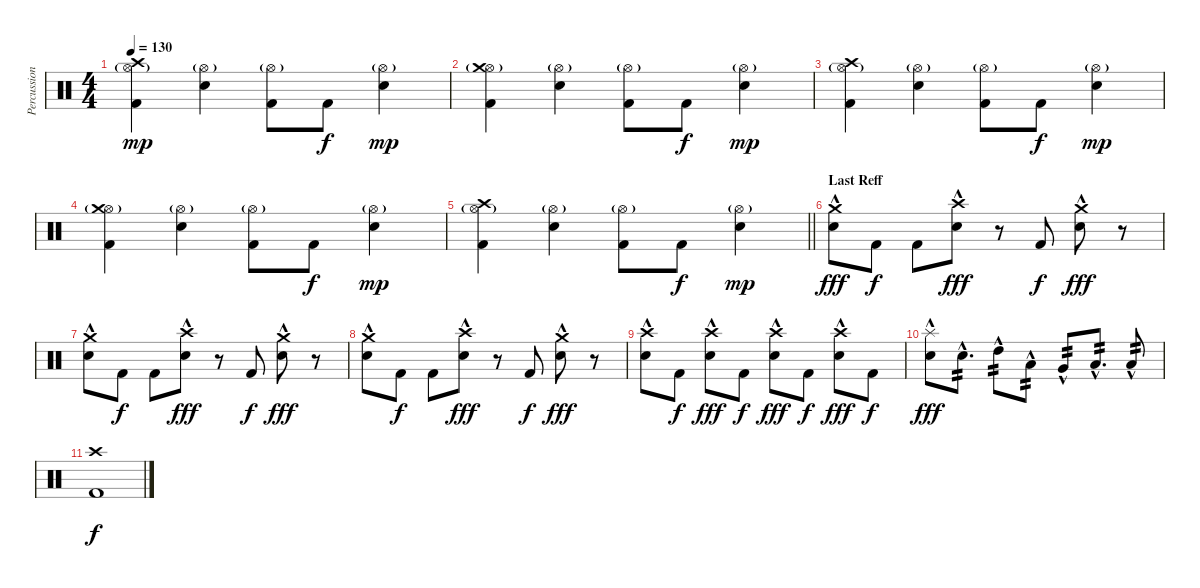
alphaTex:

\track ("Percussion 1" "Percussion") {instrument percussion}
\staff {score}
\articulation defaults
\ts (4 4)
\tempo 130
\clef neutral
\ks c
("Hi-Hat (open)"{g} "Crash high (hit)" "Kick (hit) 2").4{dy mp} ("Hi-Hat (open)"{g} "Electric Snare (hit)").4 ("Hi-Hat (open)"{g} "Kick (hit) 2").8 "Kick (hit) 2".8{dy f} ("Hi-Hat (open)"{g} "Electric Snare (hit)").4{dy mp} |
("Hi-Hat (open)"{g} "Crash medium (hit)" "Kick (hit) 2").4 ("Hi-Hat (open)"{g} "Electric Snare (hit)").4 ("Hi-Hat (open)"{g} "Kick (hit) 2").8 "Kick (hit) 2".8{dy f} ("Hi-Hat (open)"{g} "Electric Snare (hit)").4{dy mp} |
("Hi-Hat (open)"{g} "Crash high (hit)" "Kick (hit) 2").4 ("Hi-Hat (open)"{g} "Electric Snare (hit)").4 ("Hi-Hat (open)"{g} "Kick (hit) 2").8 "Kick (hit) 2".8{dy f} ("Hi-Hat (open)"{g} "Electric Snare (hit)").4{dy mp} |
("Hi-Hat (open)"{g} "Crash medium (hit)" "Kick (hit) 2").4 ("Hi-Hat (open)"{g} "Electric Snare (hit)").4 ("Hi-Hat (open)"{g} "Kick (hit) 2").8 "Kick (hit) 2".8{dy f} ("Hi-Hat (open)"{g} "Electric Snare (hit)").4{dy mp} |
\barLineRight lightlight
("Hi-Hat (open)"{g} "Crash high (hit)" "Kick (hit) 2").4 ("Hi-Hat (open)"{g} "Electric Snare (hit)").4 ("Hi-Hat (open)"{g} "Kick (hit) 2").8 "Kick (hit) 2".8{dy f} ("Hi-Hat (open)"{g} "Electric Snare (hit)").4{dy mp} |
\section ("" "Last Reff")
("Crash medium (hit)" "Electric Snare (hit)"{hac}).8{dy fff} "Kick (hit) 2".8{dy f} "Kick (hit) 2".8 ("Crash high (hit)" "Electric Snare (hit)"{hac}).8{dy fff} r.8 "Kick (hit) 2".8{dy f} ("Crash medium (hit)" "Electric Snare (hit)"{hac}).8{dy fff} r.8 |
("Crash medium (hit)" "Electric Snare (hit)"{hac}).8 "Kick (hit) 2".8{dy f} "Kick (hit) 2".8 ("Crash high (hit)" "Electric Snare (hit)"{hac}).8{dy fff} r.8 "Kick (hit) 2".8{dy f} ("Crash medium (hit)" "Electric Snare (hit)"{hac}).8{dy fff} r.8 |
("Crash medium (hit)" "Electric Snare (hit)"{hac}).8 "Kick (hit) 2".8{dy f} "Kick (hit) 2".8 ("Crash high (hit)" "Electric Snare (hit)"{hac}).8{dy fff} r.8 "Kick (hit) 2".8{dy f} ("Crash medium (hit)" "Electric Snare (hit)"{hac}).8{dy fff} r.8 |
("Crash high (hit)" "Electric Snare (hit)"{hac}).8 "Kick (hit) 2".8{dy f} ("Crash high (hit)" "Electric Snare (hit)"{hac}).8{dy fff} "Kick (hit) 2".8{dy f} ("Crash high (hit)" "Electric Snare (hit)"{hac}).8{dy fff} "Kick (hit) 2".8{dy f} ("Crash high (hit)" "Electric Snare (hit)"{hac}).8{dy fff} "Kick (hit) 2".8{dy f} |
("Electric Snare (hit)"{hac} "Splash (hit)"{hac}).8{dy fff} "Electric Snare (hit)"{hac}.8{d tp 2} "High Tom (hit)"{hac}.8{tp 2} "Low Tom (hit)"{hac}.8{tp 2} "Very Low Tom (hit)"{hac}.8{tp 2} "Low Tom (hit)"{hac}.8{d tp 2} "Low Floor Tom (hit)"{hac}.8{tp 2} |
("Crash high (hit)" "Kick (hit) 2").1{dy f}
